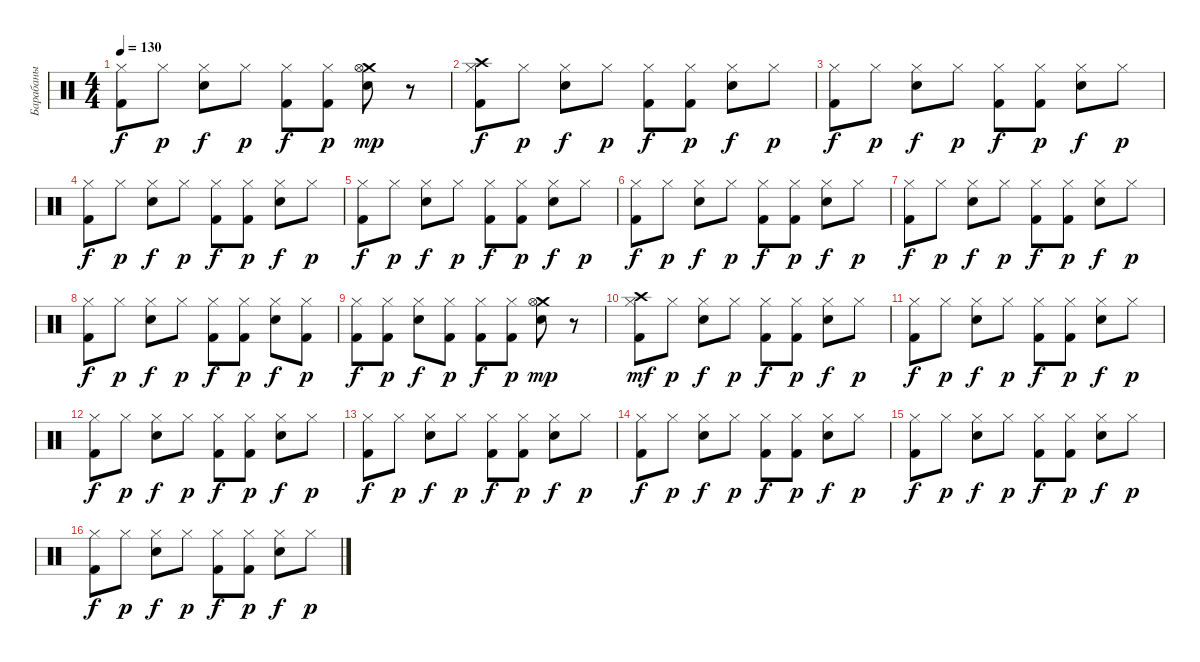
\track ("Барабаны" "Барабаны") {instrument percussion}
\staff {score}
\articulation defaults
\ts (4 4)
\tempo 130
\clef neutral
\ks c
("Hi-Hat (closed)" "Kick (hit) 2").8{dy f} "Hi-Hat (closed)".8{dy p} ("Snare (hit) 2" "Hi-Hat (closed)").8{dy f} "Hi-Hat (closed)".8{dy p} ("Hi-Hat (closed)" "Kick (hit) 2").8{dy f} ("Kick (hit) 2" "Hi-Hat (closed)").8{dy p} ("Crash medium (hit)" "Snare (hit) 2" "Hi-Hat (open)").8{dy mp} r.8 |
("Crash high (hit)" "Hi-Hat (closed)" "Kick (hit) 2").8{dy f} "Hi-Hat (closed)".8{dy p} ("Snare (hit) 2" "Hi-Hat (closed)").8{dy f} "Hi-Hat (closed)".8{dy p} ("Hi-Hat (closed)" "Kick (hit) 2").8{dy f} ("Kick (hit) 2" "Hi-Hat (closed)").8{dy p} ("Snare (hit) 2" "Hi-Hat (closed)").8{dy f} "Hi-Hat (closed)".8{dy p} |
("Hi-Hat (closed)" "Kick (hit) 2").8{dy f} "Hi-Hat (closed)".8{dy p} ("Snare (hit) 2" "Hi-Hat (closed)").8{dy f} "Hi-Hat (closed)".8{dy p} ("Hi-Hat (closed)" "Kick (hit) 2").8{dy f} ("Kick (hit) 2" "Hi-Hat (closed)").8{dy p} ("Snare (hit) 2" "Hi-Hat (closed)").8{dy f} "Hi-Hat (closed)".8{dy p} |
("Hi-Hat (closed)" "Kick (hit) 2").8{dy f} "Hi-Hat (closed)".8{dy p} ("Snare (hit) 2" "Hi-Hat (closed)").8{dy f} "Hi-Hat (closed)".8{dy p} ("Hi-Hat (closed)" "Kick (hit) 2").8{dy f} ("Kick (hit) 2" "Hi-Hat (closed)").8{dy p} ("Snare (hit) 2" "Hi-Hat (closed)").8{dy f} "Hi-Hat (closed)".8{dy p} |
("Hi-Hat (closed)" "Kick (hit) 2").8{dy f} "Hi-Hat (closed)".8{dy p} ("Snare (hit) 2" "Hi-Hat (closed)").8{dy f} "Hi-Hat (closed)".8{dy p} ("Hi-Hat (closed)" "Kick (hit) 2").8{dy f} ("Kick (hit) 2" "Hi-Hat (closed)").8{dy p} ("Snare (hit) 2" "Hi-Hat (closed)").8{dy f} "Hi-Hat (closed)".8{dy p} |
("Hi-Hat (closed)" "Kick (hit) 2").8{dy f} "Hi-Hat (closed)".8{dy p} ("Snare (hit) 2" "Hi-Hat (closed)").8{dy f} "Hi-Hat (closed)".8{dy p} ("Hi-Hat (closed)" "Kick (hit) 2").8{dy f} ("Kick (hit) 2" "Hi-Hat (closed)").8{dy p} ("Snare (hit) 2" "Hi-Hat (closed)").8{dy f} "Hi-Hat (closed)".8{dy p} |
("Hi-Hat (closed)" "Kick (hit) 2").8{dy f} "Hi-Hat (closed)".8{dy p} ("Snare (hit) 2" "Hi-Hat (closed)").8{dy f} "Hi-Hat (closed)".8{dy p} ("Hi-Hat (closed)" "Kick (hit) 2").8{dy f} ("Kick (hit) 2" "Hi-Hat (closed)").8{dy p} ("Snare (hit) 2" "Hi-Hat (closed)").8{dy f} "Hi-Hat (closed)".8{dy p} |
("Hi-Hat (closed)" "Kick (hit) 2").8{dy f} "Hi-Hat (closed)".8{dy p} ("Snare (hit) 2" "Hi-Hat (closed)").8{dy f} "Hi-Hat (closed)".8{dy p} ("Hi-Hat (closed)" "Kick (hit) 2").8{dy f} ("Kick (hit) 2" "Hi-Hat (closed)").8{dy p} ("Snare (hit) 2" "Hi-Hat (closed)").8{dy f} ("Kick (hit) 2" "Hi-Hat (closed)").8{dy p} |
("Hi-Hat (closed)" "Kick (hit) 2").8{dy f} ("Kick (hit) 2" "Hi-Hat (closed)").8{dy p} ("Snare (hit) 2" "Hi-Hat (closed)").8{dy f} ("Kick (hit) 2" "Hi-Hat (closed)").8{dy p} ("Hi-Hat (closed)" "Kick (hit) 2").8{dy f} ("Kick (hit) 2" "Hi-Hat (closed)").8{dy p} ("Crash medium (hit)" "Snare (hit) 2" "Hi-Hat (open)").8{dy mp} r.8 |
("Crash high (hit)" "Hi-Hat (closed)" "Kick (hit) 2").8{dy mf} "Hi-Hat (closed)".8{dy p} ("Snare (hit) 2" "Hi-Hat (closed)").8{dy f} "Hi-Hat (closed)".8{dy p} ("Hi-Hat (closed)" "Kick (hit) 2").8{dy f} ("Kick (hit) 2" "Hi-Hat (closed)").8{dy p} ("Snare (hit) 2" "Hi-Hat (closed)").8{dy f} "Hi-Hat (closed)".8{dy p} |
("Hi-Hat (closed)" "Kick (hit) 2").8{dy f} "Hi-Hat (closed)".8{dy p} ("Snare (hit) 2" "Hi-Hat (closed)").8{dy f} "Hi-Hat (closed)".8{dy p} ("Hi-Hat (closed)" "Kick (hit) 2").8{dy f} ("Kick (hit) 2" "Hi-Hat (closed)").8{dy p} ("Snare (hit) 2" "Hi-Hat (closed)").8{dy f} "Hi-Hat (closed)".8{dy p} |
("Hi-Hat (closed)" "Kick (hit) 2").8{dy f} "Hi-Hat (closed)".8{dy p} ("Snare (hit) 2" "Hi-Hat (closed)").8{dy f} "Hi-Hat (closed)".8{dy p} ("Hi-Hat (closed)" "Kick (hit) 2").8{dy f} ("Kick (hit) 2" "Hi-Hat (closed)").8{dy p} ("Snare (hit) 2" "Hi-Hat (closed)").8{dy f} "Hi-Hat (closed)".8{dy p} |
("Hi-Hat (closed)" "Kick (hit) 2").8{dy f} "Hi-Hat (closed)".8{dy p} ("Snare (hit) 2" "Hi-Hat (closed)").8{dy f} "Hi-Hat (closed)".8{dy p} ("Hi-Hat (closed)" "Kick (hit) 2").8{dy f} ("Kick (hit) 2" "Hi-Hat (closed)").8{dy p} ("Snare (hit) 2" "Hi-Hat (closed)").8{dy f} "Hi-Hat (closed)".8{dy p} |
("Hi-Hat (closed)" "Kick (hit) 2").8{dy f} "Hi-Hat (closed)".8{dy p} ("Snare (hit) 2" "Hi-Hat (closed)").8{dy f} "Hi-Hat (closed)".8{dy p} ("Hi-Hat (closed)" "Kick (hit) 2").8{dy f} ("Kick (hit) 2" "Hi-Hat (closed)").8{dy p} ("Snare (hit) 2" "Hi-Hat (closed)").8{dy f} "Hi-Hat (closed)".8{dy p} |
("Hi-Hat (closed)" "Kick (hit) 2").8{dy f} "Hi-Hat (closed)".8{dy p} ("Snare (hit) 2" "Hi-Hat (closed)").8{dy f} "Hi-Hat (closed)".8{dy p} ("Hi-Hat (closed)" "Kick (hit) 2").8{dy f} ("Kick (hit) 2" "Hi-Hat (closed)").8{dy p} ("Snare (hit) 2" "Hi-Hat (closed)").8{dy f} "Hi-Hat (closed)".8{dy p} |
("Hi-Hat (closed)" "Kick (hit) 2").8{dy f} "Hi-Hat (closed)".8{dy p} ("Snare (hit) 2" "Hi-Hat (closed)").8{dy f} "Hi-Hat (closed)".8{dy p} ("Hi-Hat (closed)" "Kick (hit) 2").8{dy f} ("Kick (hit) 2" "Hi-Hat (closed)").8{dy p} ("Snare (hit) 2" "Hi-Hat (closed)").8{dy f} "Hi-Hat (closed)".8{dy p}
